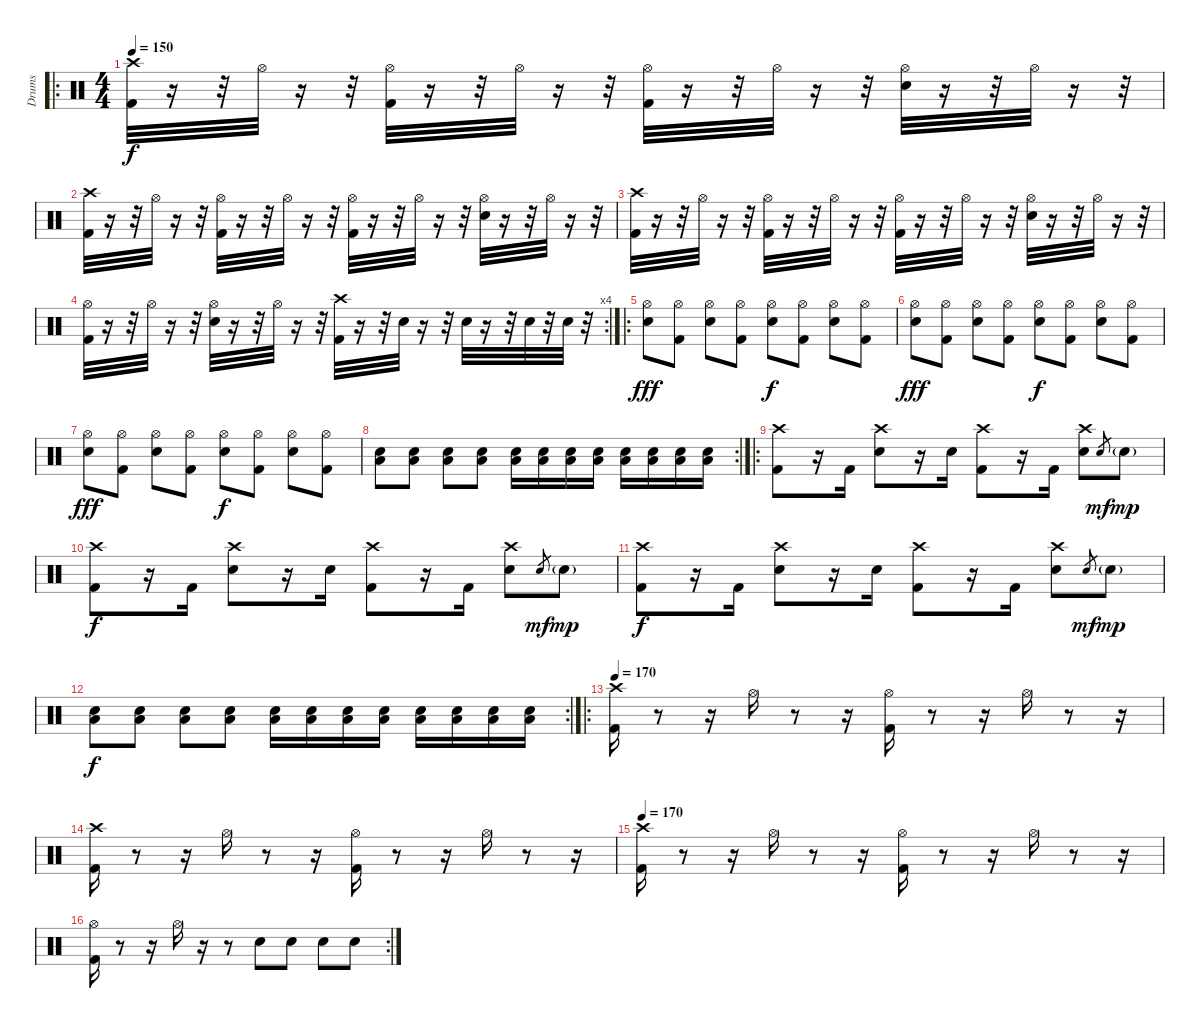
\track ("Drums" "Drums") {instrument percussion}
\staff {score}
\articulation defaults
\ro
\ts (4 4)
\tempo 150
\clef neutral
\ks c
("Kick (hit) 2" "Crash high (hit)").32{dy f} r.16 r.32 "Hi-Hat (open)".32 r.16 r.32 ("Hi-Hat (open)" "Kick (hit) 2").32 r.16 r.32 "Hi-Hat (open)".32 r.16 r.32 ("Hi-Hat (open)" "Kick (hit) 2").32 r.16 r.32 "Hi-Hat (open)".32 r.16 r.32 ("Snare (hit) 2" "Hi-Hat (open)").32 r.16 r.32 "Hi-Hat (open)".32 r.16 r.32 |
("Kick (hit) 2" "Crash high (hit)").32 r.16 r.32 "Hi-Hat (open)".32 r.16 r.32 ("Hi-Hat (open)" "Kick (hit) 2").32 r.16 r.32 "Hi-Hat (open)".32 r.16 r.32 ("Hi-Hat (open)" "Kick (hit) 2").32 r.16 r.32 "Hi-Hat (open)".32 r.16 r.32 ("Snare (hit) 2" "Hi-Hat (open)").32 r.16 r.32 "Hi-Hat (open)".32 r.16 r.32 |
("Kick (hit) 2" "Crash high (hit)").32 r.16 r.32 "Hi-Hat (open)".32 r.16 r.32 ("Hi-Hat (open)" "Kick (hit) 2").32 r.16 r.32 "Hi-Hat (open)".32 r.16 r.32 ("Hi-Hat (open)" "Kick (hit) 2").32 r.16 r.32 "Hi-Hat (open)".32 r.16 r.32 ("Snare (hit) 2" "Hi-Hat (open)").32 r.16 r.32 "Hi-Hat (open)".32 r.16 r.32 |
\rc 4
("Kick (hit) 2" "Hi-Hat (open)").32 r.16 r.32 "Hi-Hat (open)".32 r.16 r.32 ("Snare (hit) 2" "Hi-Hat (open)").32 r.16 r.32 "Hi-Hat (open)".32 r.16 r.32 ("Crash high (hit)" "Kick (hit) 2").32 r.16 r.32 "Snare (hit) 2".32 r.16 r.32 "Snare (hit) 2".32 r.16 r.32 "Snare (hit) 2".32 r.32 "Snare (hit) 2".32 r.32 |
\ro
("Hi-Hat (open)" "Snare (hit) 2").8{dy fff} ("Hi-Hat (open)" "Kick (hit) 2").8 ("Hi-Hat (open)" "Snare (hit) 2").8 ("Hi-Hat (open)" "Kick (hit) 2").8 ("Hi-Hat (open)" "Snare (hit) 2").8{dy f} ("Hi-Hat (open)" "Kick (hit) 2").8 ("Hi-Hat (open)" "Snare (hit) 2").8 ("Hi-Hat (open)" "Kick (hit) 2").8 |
("Hi-Hat (open)" "Snare (hit) 2").8{dy fff} ("Hi-Hat (open)" "Kick (hit) 2").8 ("Hi-Hat (open)" "Snare (hit) 2").8 ("Hi-Hat (open)" "Kick (hit) 2").8 ("Hi-Hat (open)" "Snare (hit) 2").8{dy f} ("Hi-Hat (open)" "Kick (hit) 2").8 ("Hi-Hat (open)" "Snare (hit) 2").8 ("Hi-Hat (open)" "Kick (hit) 2").8 |
("Hi-Hat (open)" "Snare (hit) 2").8{dy fff} ("Hi-Hat (open)" "Kick (hit) 2").8 ("Hi-Hat (open)" "Snare (hit) 2").8 ("Hi-Hat (open)" "Kick (hit) 2").8 ("Hi-Hat (open)" "Snare (hit) 2").8{dy f} ("Hi-Hat (open)" "Kick (hit) 2").8 ("Hi-Hat (open)" "Snare (hit) 2").8 ("Hi-Hat (open)" "Kick (hit) 2").8 |
\rc 2
("Low Tom (hit)" "Snare (hit) 2").8 ("Low Tom (hit)" "Snare (hit) 2").8 ("Low Tom (hit)" "Snare (hit) 2").8 ("Low Tom (hit)" "Snare (hit) 2").8 ("Low Tom (hit)" "Snare (hit) 2").16 ("Low Tom (hit)" "Snare (hit) 2").16 ("Low Tom (hit)" "Snare (hit) 2").16 ("Low Tom (hit)" "Snare (hit) 2").16 ("Low Tom (hit)" "Snare (hit) 2").16 ("Low Tom (hit)" "Snare (hit) 2").16 ("Low Tom (hit)" "Snare (hit) 2").16 ("Low Tom (hit)" "Snare (hit) 2").16 |
\ro
("Crash high (hit)" "Kick (hit) 2").8 r.16 "Kick (hit) 2".16 ("Crash high (hit)" "Electric Snare (hit)").8 r.16 "Electric Snare (hit)".16 ("Crash high (hit)" "Kick (hit) 2").8 r.16 "Kick (hit) 2".16 ("Crash high (hit)" "Electric Snare (hit)").8 "Electric Snare (hit)".8{gr dy mf} "Electric Snare (hit)"{g}.8{dy mp} |
("Crash high (hit)" "Kick (hit) 2").8{dy f} r.16 "Kick (hit) 2".16 ("Crash high (hit)" "Electric Snare (hit)").8 r.16 "Electric Snare (hit)".16 ("Crash high (hit)" "Kick (hit) 2").8 r.16 "Kick (hit) 2".16 ("Crash high (hit)" "Electric Snare (hit)").8 "Electric Snare (hit)".8{gr dy mf} "Electric Snare (hit)"{g}.8{dy mp} |
("Crash high (hit)" "Kick (hit) 2").8{dy f} r.16 "Kick (hit) 2".16 ("Crash high (hit)" "Electric Snare (hit)").8 r.16 "Electric Snare (hit)".16 ("Crash high (hit)" "Kick (hit) 2").8 r.16 "Kick (hit) 2".16 ("Crash high (hit)" "Electric Snare (hit)").8 "Electric Snare (hit)".8{gr dy mf} "Electric Snare (hit)"{g}.8{dy mp} |
\rc 2
("Low Tom (hit)" "Snare (hit) 2").8{dy f} ("Low Tom (hit)" "Snare (hit) 2").8 ("Low Tom (hit)" "Snare (hit) 2").8 ("Low Tom (hit)" "Snare (hit) 2").8 ("Low Tom (hit)" "Snare (hit) 2").16 ("Low Tom (hit)" "Snare (hit) 2").16 ("Low Tom (hit)" "Snare (hit) 2").16 ("Low Tom (hit)" "Snare (hit) 2").16 ("Low Tom (hit)" "Snare (hit) 2").16 ("Low Tom (hit)" "Snare (hit) 2").16 ("Low Tom (hit)" "Snare (hit) 2").16 ("Low Tom (hit)" "Snare (hit) 2").16 |
\ro
\tempo 170
("Kick (hit) 2" "Crash high (hit)").16 r.8 r.16 "Hi-Hat (open)".16 r.8 r.16 ("Hi-Hat (open)" "Kick (hit) 2").16 r.8 r.16 "Hi-Hat (open)".16 r.8 r.16 |
("Kick (hit) 2" "Crash high (hit)").16 r.8 r.16 "Hi-Hat (open)".16 r.8 r.16 ("Hi-Hat (open)" "Kick (hit) 2").16 r.8 r.16 "Hi-Hat (open)".16 r.8 r.16 |
\tempo 170
("Kick (hit) 2" "Crash high (hit)").16 r.8 r.16 "Hi-Hat (open)".16 r.8 r.16 ("Hi-Hat (open)" "Kick (hit) 2").16 r.8 r.16 "Hi-Hat (open)".16 r.8 r.16 |
\rc 2
("Kick (hit) 2" "Hi-Hat (open)").16 r.8 r.16 "Hi-Hat (open)".16 r.16 r.8 "Snare (hit) 2".8 "Snare (hit) 2".8 "Snare (hit) 2".8 "Snare (hit) 2".8
